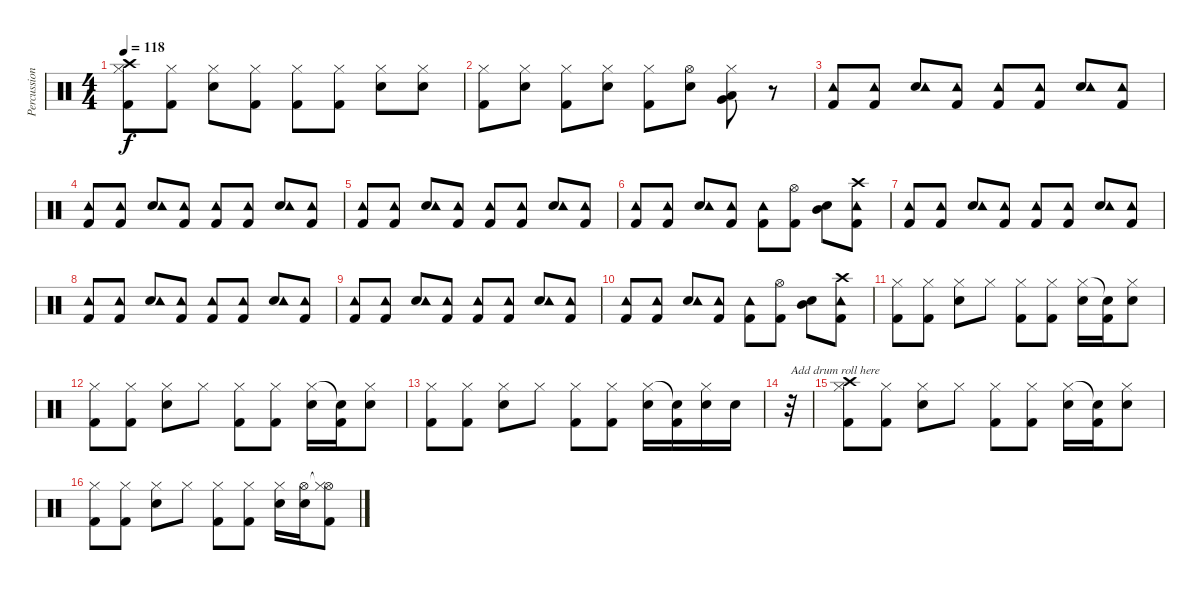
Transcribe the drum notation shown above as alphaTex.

\track ("Percussion" "Percussion") {instrument percussion}
\staff {score}
\articulation defaults
\ts (4 4)
\tempo 118
\clef neutral
\ks c
("Crash high (hit)" "Kick (hit) 2" "Hi-Hat (closed)").8{dy f} ("Kick (hit) 2" "Hi-Hat (closed)").8 ("Snare (hit) 2" "Hi-Hat (closed)").8 ("Kick (hit) 2" "Hi-Hat (closed)").8 ("Kick (hit) 2" "Hi-Hat (closed)").8 ("Kick (hit) 2" "Hi-Hat (closed)").8 ("Snare (hit) 2" "Hi-Hat (closed)").8 ("Snare (hit) 2" "Hi-Hat (closed)").8 |
("Kick (hit) 2" "Hi-Hat (closed)").8 ("Snare (hit) 2" "Hi-Hat (closed)").8 ("Kick (hit) 2" "Hi-Hat (closed)").8 ("Snare (hit) 2" "Hi-Hat (closed)").8 ("Kick (hit) 2" "Hi-Hat (closed)").8 ("Snare (hit) 2" "Hi-Hat (open)").8 ("Hi-Hat (closed)" "Very Low Tom (hit)" "Low Tom (hit)").8 r.8 |
("Kick (hit) 2" "Tambourine (hit)").8 ("Kick (hit) 2" "Tambourine (hit)").8 ("Snare (hit) 2" "Tambourine (hit)").8 ("Kick (hit) 2" "Tambourine (hit)").8 ("Kick (hit) 2" "Tambourine (hit)").8 ("Kick (hit) 2" "Tambourine (hit)").8 ("Snare (hit) 2" "Tambourine (hit)").8 ("Kick (hit) 2" "Tambourine (hit)").8 |
("Kick (hit) 2" "Tambourine (hit)").8 ("Kick (hit) 2" "Tambourine (hit)").8 ("Snare (hit) 2" "Tambourine (hit)").8 ("Kick (hit) 2" "Tambourine (hit)").8 ("Kick (hit) 2" "Tambourine (hit)").8 ("Kick (hit) 2" "Tambourine (hit)").8 ("Snare (hit) 2" "Tambourine (hit)").8 ("Kick (hit) 2" "Tambourine (hit)").8 |
("Kick (hit) 2" "Tambourine (hit)").8 ("Kick (hit) 2" "Tambourine (hit)").8 ("Snare (hit) 2" "Tambourine (hit)").8 ("Kick (hit) 2" "Tambourine (hit)").8 ("Kick (hit) 2" "Tambourine (hit)").8 ("Kick (hit) 2" "Tambourine (hit)").8 ("Snare (hit) 2" "Tambourine (hit)").8 ("Kick (hit) 2" "Tambourine (hit)").8 |
("Kick (hit) 2" "Tambourine (hit)").8 ("Kick (hit) 2" "Tambourine (hit)").8 ("Snare (hit) 2" "Tambourine (hit)").8 ("Kick (hit) 2" "Tambourine (hit)").8 ("Kick (hit) 2" "Tambourine (hit)").8 ("Kick (hit) 2" "Hi-Hat (open)").8 ("Mid Tom (hit)" "Snare (hit) 2").8 ("Crash high (hit)" "Kick (hit) 2" "Tambourine (hit)").8 |
("Kick (hit) 2" "Tambourine (hit)").8 ("Kick (hit) 2" "Tambourine (hit)").8 ("Snare (hit) 2" "Tambourine (hit)").8 ("Kick (hit) 2" "Tambourine (hit)").8 ("Kick (hit) 2" "Tambourine (hit)").8 ("Kick (hit) 2" "Tambourine (hit)").8 ("Snare (hit) 2" "Tambourine (hit)").8 ("Kick (hit) 2" "Tambourine (hit)").8 |
("Kick (hit) 2" "Tambourine (hit)").8 ("Kick (hit) 2" "Tambourine (hit)").8 ("Snare (hit) 2" "Tambourine (hit)").8 ("Kick (hit) 2" "Tambourine (hit)").8 ("Kick (hit) 2" "Tambourine (hit)").8 ("Kick (hit) 2" "Tambourine (hit)").8 ("Snare (hit) 2" "Tambourine (hit)").8 ("Kick (hit) 2" "Tambourine (hit)").8 |
("Kick (hit) 2" "Tambourine (hit)").8 ("Kick (hit) 2" "Tambourine (hit)").8 ("Snare (hit) 2" "Tambourine (hit)").8 ("Kick (hit) 2" "Tambourine (hit)").8 ("Kick (hit) 2" "Tambourine (hit)").8 ("Kick (hit) 2" "Tambourine (hit)").8 ("Snare (hit) 2" "Tambourine (hit)").8 ("Kick (hit) 2" "Tambourine (hit)").8 |
("Kick (hit) 2" "Tambourine (hit)").8 ("Kick (hit) 2" "Tambourine (hit)").8 ("Snare (hit) 2" "Tambourine (hit)").8 ("Kick (hit) 2" "Tambourine (hit)").8 ("Kick (hit) 2" "Tambourine (hit)").8 ("Kick (hit) 2" "Hi-Hat (open)").8 ("Mid Tom (hit)" "Snare (hit) 2").8 ("Crash high (hit)" "Kick (hit) 2" "Tambourine (hit)").8 |
("Kick (hit) 2" "Hi-Hat (closed)").8 ("Kick (hit) 2" "Hi-Hat (closed)").8 ("Snare (hit) 2" "Hi-Hat (closed)").8 "Hi-Hat (closed)".8 ("Kick (hit) 2" "Hi-Hat (closed)").8 ("Kick (hit) 2" "Hi-Hat (closed)").8 ("Snare (hit) 2" "Hi-Hat (closed)").16 ("Kick (hit) 2" "Snare (hit)"{t}).16 ("Snare (hit) 2" "Hi-Hat (closed)").8 |
("Kick (hit) 2" "Hi-Hat (closed)").8 ("Kick (hit) 2" "Hi-Hat (closed)").8 ("Snare (hit) 2" "Hi-Hat (closed)").8 "Hi-Hat (closed)".8 ("Kick (hit) 2" "Hi-Hat (closed)").8 ("Kick (hit) 2" "Hi-Hat (closed)").8 ("Snare (hit) 2" "Hi-Hat (closed)").16 ("Kick (hit) 2" "Snare (hit)"{t}).16 ("Snare (hit) 2" "Hi-Hat (closed)").8 |
("Kick (hit) 2" "Hi-Hat (closed)").8 ("Kick (hit) 2" "Hi-Hat (closed)").8 ("Snare (hit) 2" "Hi-Hat (closed)").8 "Hi-Hat (closed)".8 ("Kick (hit) 2" "Hi-Hat (closed)").8 ("Kick (hit) 2" "Hi-Hat (closed)").8 ("Snare (hit) 2" "Hi-Hat (closed)").16 ("Kick (hit) 2" "Snare (hit)"{t}).16 ("Snare (hit) 2" "Hi-Hat (closed)").16 "Snare (hit) 2".16 |
r.32{txt "Add drum roll here"} |
("Crash high (hit)" "Kick (hit) 2" "Hi-Hat (closed)").8 ("Kick (hit) 2" "Hi-Hat (closed)").8 ("Snare (hit) 2" "Hi-Hat (closed)").8 "Hi-Hat (closed)".8 ("Kick (hit) 2" "Hi-Hat (closed)").8 ("Kick (hit) 2" "Hi-Hat (closed)").8 ("Snare (hit) 2" "Hi-Hat (closed)").16 ("Kick (hit) 2" "Snare (hit)"{t}).16 ("Snare (hit) 2" "Hi-Hat (closed)").8 |
("Kick (hit) 2" "Hi-Hat (closed)").8 ("Kick (hit) 2" "Hi-Hat (closed)").8 ("Snare (hit) 2" "Hi-Hat (closed)").8 "Hi-Hat (closed)".8 ("Kick (hit) 2" "Hi-Hat (closed)").8 ("Kick (hit) 2" "Hi-Hat (closed)").8 ("Snare (hit) 2" "Hi-Hat (closed)").16 ("Hi-Hat (open)" "Snare (hit) 2").16 ("Hi-Hat (open)"{t} "Kick (hit) 2" "Hi-Hat (closed)").8
